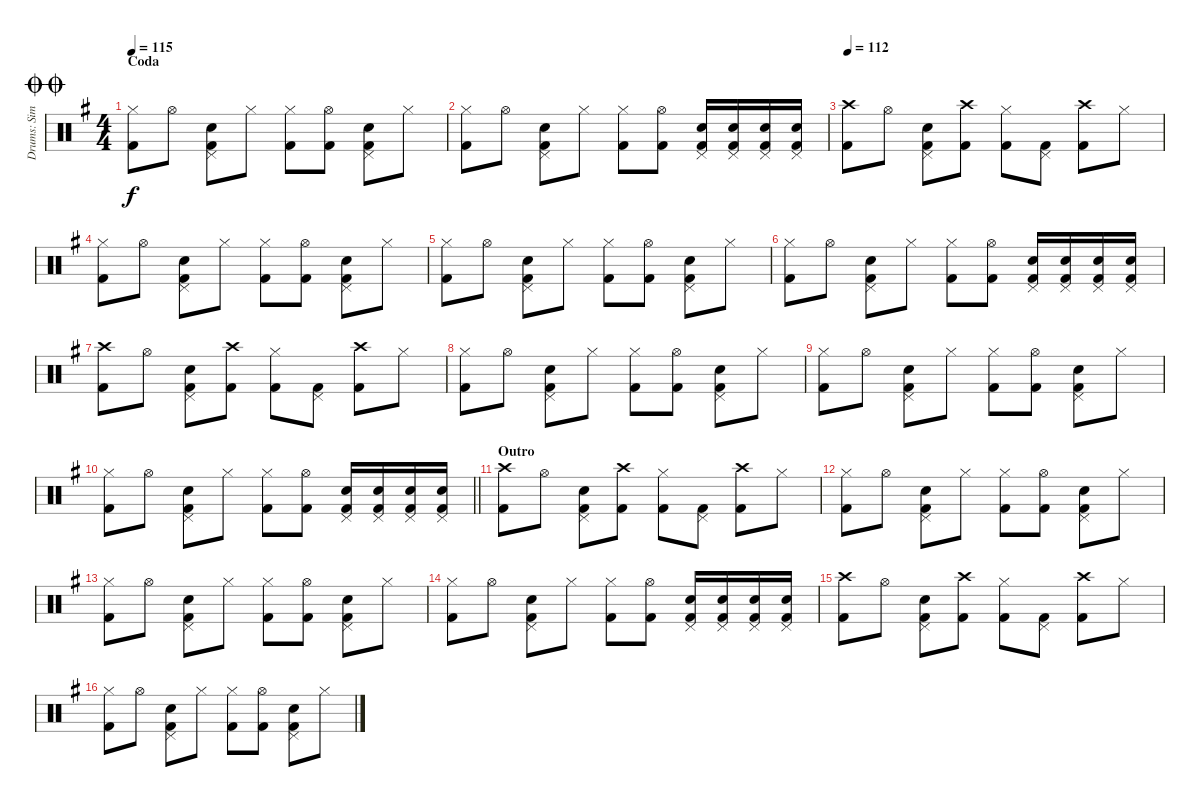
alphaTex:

\track ("Drums: Simon" "Drums: Sim") {instrument percussion}
\staff {score}
\articulation defaults
\ts (4 4)
\section ("" "Coda")
\jump doublecoda
\tempo 115
\clef neutral
\ks g
("Hi-Hat (closed)" "Kick (hit) 2").8{dy f} "Hi-Hat (open)".8 ("Pedal Hi-Hat (hit)" "Snare (hit) 2" "Kick (hit) 2").8 "Hi-Hat (closed)".8 ("Hi-Hat (closed)" "Kick (hit) 2").8 ("Hi-Hat (open)" "Kick (hit) 2").8 ("Pedal Hi-Hat (hit)" "Snare (hit) 2" "Kick (hit) 2").8 "Hi-Hat (closed)".8 |
("Hi-Hat (closed)" "Kick (hit) 2").8 "Hi-Hat (open)".8 ("Pedal Hi-Hat (hit)" "Snare (hit) 2" "Kick (hit) 2").8 "Hi-Hat (closed)".8 ("Hi-Hat (closed)" "Kick (hit) 2").8 ("Hi-Hat (open)" "Kick (hit) 2").8 ("Pedal Hi-Hat (hit)" "Snare (hit) 2" "Kick (hit) 2").16 ("Pedal Hi-Hat (hit)" "Snare (hit) 2" "Kick (hit) 2").16 ("Pedal Hi-Hat (hit)" "Snare (hit) 2" "Kick (hit) 2").16 ("Pedal Hi-Hat (hit)" "Snare (hit) 2" "Kick (hit) 2").16 |
\tempo 112
("Crash high (hit)" "Kick (hit) 2").8 "Hi-Hat (open)".8 ("Pedal Hi-Hat (hit)" "Snare (hit) 2" "Kick (hit) 2").8 ("Crash high (hit)" "Kick (hit) 2").8 ("Hi-Hat (closed)" "Kick (hit) 2").8 ("Pedal Hi-Hat (hit)" "Kick (hit) 2").8 ("Crash high (hit)" "Kick (hit) 2").8 "Hi-Hat (closed)".8 |
("Hi-Hat (closed)" "Kick (hit) 2").8 "Hi-Hat (open)".8 ("Pedal Hi-Hat (hit)" "Snare (hit) 2" "Kick (hit) 2").8 "Hi-Hat (closed)".8 ("Hi-Hat (closed)" "Kick (hit) 2").8 ("Hi-Hat (open)" "Kick (hit) 2").8 ("Pedal Hi-Hat (hit)" "Snare (hit) 2" "Kick (hit) 2").8 "Hi-Hat (closed)".8 |
("Hi-Hat (closed)" "Kick (hit) 2").8 "Hi-Hat (open)".8 ("Pedal Hi-Hat (hit)" "Snare (hit) 2" "Kick (hit) 2").8 "Hi-Hat (closed)".8 ("Hi-Hat (closed)" "Kick (hit) 2").8 ("Hi-Hat (open)" "Kick (hit) 2").8 ("Pedal Hi-Hat (hit)" "Snare (hit) 2" "Kick (hit) 2").8 "Hi-Hat (closed)".8 |
("Hi-Hat (closed)" "Kick (hit) 2").8 "Hi-Hat (open)".8 ("Pedal Hi-Hat (hit)" "Snare (hit) 2" "Kick (hit) 2").8 "Hi-Hat (closed)".8 ("Hi-Hat (closed)" "Kick (hit) 2").8 ("Hi-Hat (open)" "Kick (hit) 2").8 ("Pedal Hi-Hat (hit)" "Snare (hit) 2" "Kick (hit) 2").16 ("Pedal Hi-Hat (hit)" "Snare (hit) 2" "Kick (hit) 2").16 ("Pedal Hi-Hat (hit)" "Snare (hit) 2" "Kick (hit) 2").16 ("Pedal Hi-Hat (hit)" "Snare (hit) 2" "Kick (hit) 2").16 |
("Crash high (hit)" "Kick (hit) 2").8 "Hi-Hat (open)".8 ("Pedal Hi-Hat (hit)" "Snare (hit) 2" "Kick (hit) 2").8 ("Crash high (hit)" "Kick (hit) 2").8 ("Hi-Hat (closed)" "Kick (hit) 2").8 ("Pedal Hi-Hat (hit)" "Kick (hit) 2").8 ("Crash high (hit)" "Kick (hit) 2").8 "Hi-Hat (closed)".8 |
("Hi-Hat (closed)" "Kick (hit) 2").8 "Hi-Hat (open)".8 ("Pedal Hi-Hat (hit)" "Snare (hit) 2" "Kick (hit) 2").8 "Hi-Hat (closed)".8 ("Hi-Hat (closed)" "Kick (hit) 2").8 ("Hi-Hat (open)" "Kick (hit) 2").8 ("Pedal Hi-Hat (hit)" "Snare (hit) 2" "Kick (hit) 2").8 "Hi-Hat (closed)".8 |
("Hi-Hat (closed)" "Kick (hit) 2").8 "Hi-Hat (open)".8 ("Pedal Hi-Hat (hit)" "Snare (hit) 2" "Kick (hit) 2").8 "Hi-Hat (closed)".8 ("Hi-Hat (closed)" "Kick (hit) 2").8 ("Hi-Hat (open)" "Kick (hit) 2").8 ("Pedal Hi-Hat (hit)" "Snare (hit) 2" "Kick (hit) 2").8 "Hi-Hat (closed)".8 |
\barLineRight lightlight
("Hi-Hat (closed)" "Kick (hit) 2").8 "Hi-Hat (open)".8 ("Pedal Hi-Hat (hit)" "Snare (hit) 2" "Kick (hit) 2").8 "Hi-Hat (closed)".8 ("Hi-Hat (closed)" "Kick (hit) 2").8 ("Hi-Hat (open)" "Kick (hit) 2").8 ("Pedal Hi-Hat (hit)" "Snare (hit) 2" "Kick (hit) 2").16 ("Pedal Hi-Hat (hit)" "Snare (hit) 2" "Kick (hit) 2").16 ("Pedal Hi-Hat (hit)" "Snare (hit) 2" "Kick (hit) 2").16 ("Pedal Hi-Hat (hit)" "Snare (hit) 2" "Kick (hit) 2").16 |
\section ("" "Outro")
("Crash high (hit)" "Kick (hit) 2").8 "Hi-Hat (open)".8 ("Pedal Hi-Hat (hit)" "Snare (hit) 2" "Kick (hit) 2").8 ("Crash high (hit)" "Kick (hit) 2").8 ("Hi-Hat (closed)" "Kick (hit) 2").8 ("Pedal Hi-Hat (hit)" "Kick (hit) 2").8 ("Crash high (hit)" "Kick (hit) 2").8 "Hi-Hat (closed)".8 |
("Hi-Hat (closed)" "Kick (hit) 2").8 "Hi-Hat (open)".8 ("Pedal Hi-Hat (hit)" "Snare (hit) 2" "Kick (hit) 2").8 "Hi-Hat (closed)".8 ("Hi-Hat (closed)" "Kick (hit) 2").8 ("Hi-Hat (open)" "Kick (hit) 2").8 ("Pedal Hi-Hat (hit)" "Snare (hit) 2" "Kick (hit) 2").8 "Hi-Hat (closed)".8 |
("Hi-Hat (closed)" "Kick (hit) 2").8 "Hi-Hat (open)".8 ("Pedal Hi-Hat (hit)" "Snare (hit) 2" "Kick (hit) 2").8 "Hi-Hat (closed)".8 ("Hi-Hat (closed)" "Kick (hit) 2").8 ("Hi-Hat (open)" "Kick (hit) 2").8 ("Pedal Hi-Hat (hit)" "Snare (hit) 2" "Kick (hit) 2").8 "Hi-Hat (closed)".8 |
("Hi-Hat (closed)" "Kick (hit) 2").8 "Hi-Hat (open)".8 ("Pedal Hi-Hat (hit)" "Snare (hit) 2" "Kick (hit) 2").8 "Hi-Hat (closed)".8 ("Hi-Hat (closed)" "Kick (hit) 2").8 ("Hi-Hat (open)" "Kick (hit) 2").8 ("Pedal Hi-Hat (hit)" "Snare (hit) 2" "Kick (hit) 2").16 ("Pedal Hi-Hat (hit)" "Snare (hit) 2" "Kick (hit) 2").16 ("Pedal Hi-Hat (hit)" "Snare (hit) 2" "Kick (hit) 2").16 ("Pedal Hi-Hat (hit)" "Snare (hit) 2" "Kick (hit) 2").16 |
("Crash high (hit)" "Kick (hit) 2").8 "Hi-Hat (open)".8 ("Pedal Hi-Hat (hit)" "Snare (hit) 2" "Kick (hit) 2").8 ("Crash high (hit)" "Kick (hit) 2").8 ("Hi-Hat (closed)" "Kick (hit) 2").8 ("Pedal Hi-Hat (hit)" "Kick (hit) 2").8 ("Crash high (hit)" "Kick (hit) 2").8 "Hi-Hat (closed)".8 |
("Hi-Hat (closed)" "Kick (hit) 2").8 "Hi-Hat (open)".8 ("Pedal Hi-Hat (hit)" "Snare (hit) 2" "Kick (hit) 2").8 "Hi-Hat (closed)".8 ("Hi-Hat (closed)" "Kick (hit) 2").8 ("Hi-Hat (open)" "Kick (hit) 2").8 ("Pedal Hi-Hat (hit)" "Snare (hit) 2" "Kick (hit) 2").8 "Hi-Hat (closed)".8
